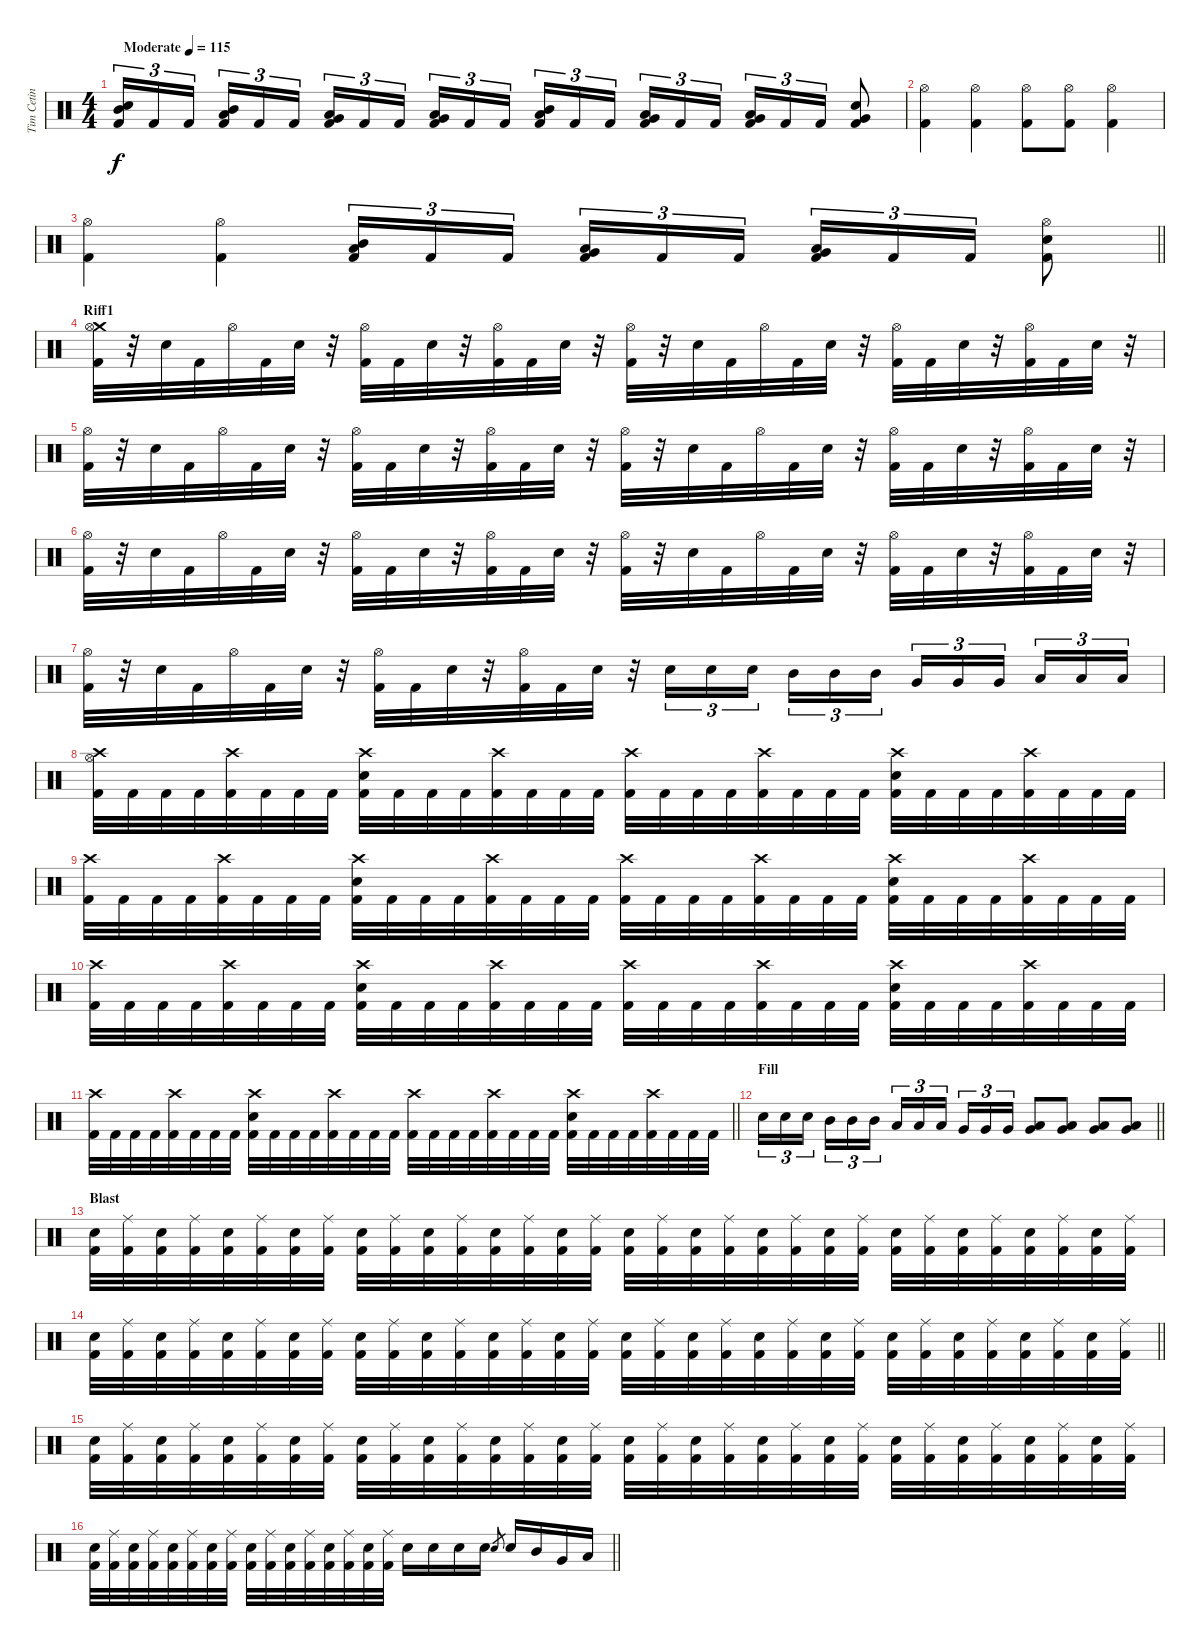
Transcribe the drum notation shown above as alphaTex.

\track ("Tim Cetin" "Tim Cetin") {instrument percussion}
\staff {score}
\articulation defaults
\ts (4 4)
\tempo (115 "Moderate")
\clef neutral
\ks c
("Mid Tom (hit)" "Snare (hit) 2" "Kick (hit) 2").16{tu (3 2) dy f} "Kick (hit) 2".16{tu (3 2)} "Kick (hit) 2".16{tu (3 2) beam splitsecondary} ("Low Tom (hit)" "Mid Tom (hit)" "Kick (hit) 2").16{tu (3 2)} "Kick (hit) 2".16{tu (3 2)} "Kick (hit) 2".16{tu (3 2)} ("Low Tom (hit)" "Very Low Tom (hit)" "Kick (hit) 2").16{tu (3 2)} "Kick (hit) 2".16{tu (3 2)} "Kick (hit) 2".16{tu (3 2) beam splitsecondary} ("Low Floor Tom (hit)" "Very Low Tom (hit)" "Kick (hit) 2").16{tu (3 2)} "Kick (hit) 2".16{tu (3 2)} "Kick (hit) 2".16{tu (3 2)} ("Mid Tom (hit)" "Low Tom (hit)" "Kick (hit) 2").16{tu (3 2)} "Kick (hit) 2".16{tu (3 2)} "Kick (hit) 2".16{tu (3 2) beam splitsecondary} ("Low Tom (hit)" "Very Low Tom (hit)" "Kick (hit) 2").16{tu (3 2)} "Kick (hit) 2".16{tu (3 2)} "Kick (hit) 2".16{tu (3 2)} ("Low Floor Tom (hit)" "Very Low Tom (hit)" "Kick (hit) 2").16{tu (3 2)} "Kick (hit) 2".16{tu (3 2)} "Kick (hit) 2".16{tu (3 2)} ("Snare (hit) 2" "Very Low Tom (hit)" "Kick (hit) 2").8 |
("Hi-Hat (open)" "Kick (hit) 2").4 ("Hi-Hat (open)" "Kick (hit) 2").4 ("Hi-Hat (open)" "Kick (hit) 2").8 ("Hi-Hat (open)" "Kick (hit) 2").8 ("Hi-Hat (open)" "Kick (hit) 2").4 |
\barLineRight lightlight
("Hi-Hat (open)" "Kick (hit) 2").4 ("Hi-Hat (open)" "Kick (hit) 2").4 ("Low Tom (hit)" "Mid Tom (hit)" "Kick (hit) 2").16{tu (3 2)} "Kick (hit) 2".16{tu (3 2)} "Kick (hit) 2".16{tu (3 2) beam splitsecondary} ("Low Tom (hit)" "Very Low Tom (hit)" "Kick (hit) 2").16{tu (3 2)} "Kick (hit) 2".16{tu (3 2)} "Kick (hit) 2".16{tu (3 2)} ("Low Floor Tom (hit)" "Very Low Tom (hit)" "Kick (hit) 2").16{tu (3 2)} "Kick (hit) 2".16{tu (3 2)} "Kick (hit) 2".16{tu (3 2)} ("Hi-Hat (open)" "Snare (hit) 2" "Kick (hit) 2").8 |
\section ("" "Riff1")
("Crash medium (hit)" "Hi-Hat (open)" "Kick (hit) 2").32 r.32 "Snare (hit) 2".32 "Kick (hit) 2".32 "Hi-Hat (open)".32 "Kick (hit) 2".32 "Snare (hit) 2".32 r.32 ("Hi-Hat (open)" "Kick (hit) 2").32 "Kick (hit) 2".32 "Snare (hit) 2".32 r.32 ("Hi-Hat (open)" "Kick (hit) 2").32 "Kick (hit) 2".32 "Snare (hit) 2".32 r.32 ("Hi-Hat (open)" "Kick (hit) 2").32 r.32 "Snare (hit) 2".32 "Kick (hit) 2".32 "Hi-Hat (open)".32 "Kick (hit) 2".32 "Snare (hit) 2".32 r.32 ("Hi-Hat (open)" "Kick (hit) 2").32 "Kick (hit) 2".32 "Snare (hit) 2".32 r.32 ("Hi-Hat (open)" "Kick (hit) 2").32 "Kick (hit) 2".32 "Snare (hit) 2".32 r.32 |
("Hi-Hat (open)" "Kick (hit) 2").32 r.32 "Snare (hit) 2".32 "Kick (hit) 2".32 "Hi-Hat (open)".32 "Kick (hit) 2".32 "Snare (hit) 2".32 r.32 ("Hi-Hat (open)" "Kick (hit) 2").32 "Kick (hit) 2".32 "Snare (hit) 2".32 r.32 ("Hi-Hat (open)" "Kick (hit) 2").32 "Kick (hit) 2".32 "Snare (hit) 2".32 r.32 ("Hi-Hat (open)" "Kick (hit) 2").32 r.32 "Snare (hit) 2".32 "Kick (hit) 2".32 "Hi-Hat (open)".32 "Kick (hit) 2".32 "Snare (hit) 2".32 r.32 ("Hi-Hat (open)" "Kick (hit) 2").32 "Kick (hit) 2".32 "Snare (hit) 2".32 r.32 ("Hi-Hat (open)" "Kick (hit) 2").32 "Kick (hit) 2".32 "Snare (hit) 2".32 r.32 |
("Hi-Hat (open)" "Kick (hit) 2").32 r.32 "Snare (hit) 2".32 "Kick (hit) 2".32 "Hi-Hat (open)".32 "Kick (hit) 2".32 "Snare (hit) 2".32 r.32 ("Hi-Hat (open)" "Kick (hit) 2").32 "Kick (hit) 2".32 "Snare (hit) 2".32 r.32 ("Hi-Hat (open)" "Kick (hit) 2").32 "Kick (hit) 2".32 "Snare (hit) 2".32 r.32 ("Hi-Hat (open)" "Kick (hit) 2").32 r.32 "Snare (hit) 2".32 "Kick (hit) 2".32 "Hi-Hat (open)".32 "Kick (hit) 2".32 "Snare (hit) 2".32 r.32 ("Hi-Hat (open)" "Kick (hit) 2").32 "Kick (hit) 2".32 "Snare (hit) 2".32 r.32 ("Hi-Hat (open)" "Kick (hit) 2").32 "Kick (hit) 2".32 "Snare (hit) 2".32 r.32 |
("Hi-Hat (open)" "Kick (hit) 2").32 r.32 "Snare (hit) 2".32 "Kick (hit) 2".32 "Hi-Hat (open)".32 "Kick (hit) 2".32 "Snare (hit) 2".32 r.32 ("Hi-Hat (open)" "Kick (hit) 2").32 "Kick (hit) 2".32 "Snare (hit) 2".32 r.32 ("Hi-Hat (open)" "Kick (hit) 2").32 "Kick (hit) 2".32 "Snare (hit) 2".32 r.32 "Snare (hit) 2".16{tu (3 2)} "Snare (hit) 2".16{tu (3 2)} "Snare (hit) 2".16{tu (3 2) beam splitsecondary} "Mid Tom (hit)".16{tu (3 2)} "Mid Tom (hit)".16{tu (3 2)} "Mid Tom (hit)".16{tu (3 2)} "Very Low Tom (hit)".16{tu (3 2)} "Very Low Tom (hit)".16{tu (3 2)} "Very Low Tom (hit)".16{tu (3 2) beam splitsecondary} "Low Floor Tom (hit)".16{tu (3 2)} "Low Floor Tom (hit)".16{tu (3 2)} "Low Floor Tom (hit)".16{tu (3 2)} |
("Hi-Hat (open)" "Crash high (hit)" "Kick (hit) 2").32 "Kick (hit) 2".32 "Kick (hit) 2".32 "Kick (hit) 2".32 ("Crash high (hit)" "Kick (hit) 2").32 "Kick (hit) 2".32 "Kick (hit) 2".32 "Kick (hit) 2".32 ("Crash high (hit)" "Snare (hit) 2" "Kick (hit) 2").32 "Kick (hit) 2".32 "Kick (hit) 2".32 "Kick (hit) 2".32 ("Crash high (hit)" "Kick (hit) 2").32 "Kick (hit) 2".32 "Kick (hit) 2".32 "Kick (hit) 2".32 ("Crash high (hit)" "Kick (hit) 2").32 "Kick (hit) 2".32 "Kick (hit) 2".32 "Kick (hit) 2".32 ("Crash high (hit)" "Kick (hit) 2").32 "Kick (hit) 2".32 "Kick (hit) 2".32 "Kick (hit) 2".32 ("Crash high (hit)" "Snare (hit) 2" "Kick (hit) 2").32 "Kick (hit) 2".32 "Kick (hit) 2".32 "Kick (hit) 2".32 ("Crash high (hit)" "Kick (hit) 2").32 "Kick (hit) 2".32 "Kick (hit) 2".32 "Kick (hit) 2".32 |
("Crash high (hit)" "Kick (hit) 2").32 "Kick (hit) 2".32 "Kick (hit) 2".32 "Kick (hit) 2".32 ("Crash high (hit)" "Kick (hit) 2").32 "Kick (hit) 2".32 "Kick (hit) 2".32 "Kick (hit) 2".32 ("Crash high (hit)" "Snare (hit) 2" "Kick (hit) 2").32 "Kick (hit) 2".32 "Kick (hit) 2".32 "Kick (hit) 2".32 ("Crash high (hit)" "Kick (hit) 2").32 "Kick (hit) 2".32 "Kick (hit) 2".32 "Kick (hit) 2".32 ("Crash high (hit)" "Kick (hit) 2").32 "Kick (hit) 2".32 "Kick (hit) 2".32 "Kick (hit) 2".32 ("Crash high (hit)" "Kick (hit) 2").32 "Kick (hit) 2".32 "Kick (hit) 2".32 "Kick (hit) 2".32 ("Crash high (hit)" "Snare (hit) 2" "Kick (hit) 2").32 "Kick (hit) 2".32 "Kick (hit) 2".32 "Kick (hit) 2".32 ("Crash high (hit)" "Kick (hit) 2").32 "Kick (hit) 2".32 "Kick (hit) 2".32 "Kick (hit) 2".32 |
("Crash high (hit)" "Kick (hit) 2").32 "Kick (hit) 2".32 "Kick (hit) 2".32 "Kick (hit) 2".32 ("Crash high (hit)" "Kick (hit) 2").32 "Kick (hit) 2".32 "Kick (hit) 2".32 "Kick (hit) 2".32 ("Crash high (hit)" "Snare (hit) 2" "Kick (hit) 2").32 "Kick (hit) 2".32 "Kick (hit) 2".32 "Kick (hit) 2".32 ("Crash high (hit)" "Kick (hit) 2").32 "Kick (hit) 2".32 "Kick (hit) 2".32 "Kick (hit) 2".32 ("Crash high (hit)" "Kick (hit) 2").32 "Kick (hit) 2".32 "Kick (hit) 2".32 "Kick (hit) 2".32 ("Crash high (hit)" "Kick (hit) 2").32 "Kick (hit) 2".32 "Kick (hit) 2".32 "Kick (hit) 2".32 ("Crash high (hit)" "Snare (hit) 2" "Kick (hit) 2").32 "Kick (hit) 2".32 "Kick (hit) 2".32 "Kick (hit) 2".32 ("Crash high (hit)" "Kick (hit) 2").32 "Kick (hit) 2".32 "Kick (hit) 2".32 "Kick (hit) 2".32 |
\barLineRight lightlight
("Crash high (hit)" "Kick (hit) 2").32 "Kick (hit) 2".32 "Kick (hit) 2".32 "Kick (hit) 2".32 ("Crash high (hit)" "Kick (hit) 2").32 "Kick (hit) 2".32 "Kick (hit) 2".32 "Kick (hit) 2".32 ("Crash high (hit)" "Snare (hit) 2" "Kick (hit) 2").32 "Kick (hit) 2".32 "Kick (hit) 2".32 "Kick (hit) 2".32 ("Crash high (hit)" "Kick (hit) 2").32 "Kick (hit) 2".32 "Kick (hit) 2".32 "Kick (hit) 2".32 ("Crash high (hit)" "Kick (hit) 2").32 "Kick (hit) 2".32 "Kick (hit) 2".32 "Kick (hit) 2".32 ("Crash high (hit)" "Kick (hit) 2").32 "Kick (hit) 2".32 "Kick (hit) 2".32 "Kick (hit) 2".32 ("Crash high (hit)" "Snare (hit) 2" "Kick (hit) 2").32 "Kick (hit) 2".32 "Kick (hit) 2".32 "Kick (hit) 2".32 ("Crash high (hit)" "Kick (hit) 2").32 "Kick (hit) 2".32 "Kick (hit) 2".32 "Kick (hit) 2".32 |
\section ("" "Fill")
\barLineRight lightlight "Snare (hit) 2".16{tu (3 2)} "Snare (hit) 2".16{tu (3 2)} "Snare (hit) 2".16{tu (3 2) beam splitsecondary} "Mid Tom (hit)".16{tu (3 2)} "Mid Tom (hit)".16{tu (3 2)} "Mid Tom (hit)".16{tu (3 2)} "Low Tom (hit)".16{tu (3 2)} "Low Tom (hit)".16{tu (3 2)} "Low Tom (hit)".16{tu (3 2) beam splitsecondary} "Very Low Tom (hit)".16{tu (3 2)} "Very Low Tom (hit)".16{tu (3 2)} "Very Low Tom (hit)".16{tu (3 2)}
("Low Tom (hit)" "Very Low Tom (hit)").8 ("Low Tom (hit)" "Very Low Tom (hit)").8 ("Low Floor Tom (hit)" "Very Low Tom (hit)").8 ("Low Floor Tom (hit)" "Very Low Tom (hit)").8 |
\section ("" "Blast")
("Snare (hit) 2" "Kick (hit) 2").32 ("Ride (middle)" "Kick (hit) 2").32 ("Snare (hit) 2" "Kick (hit) 2").32 ("Ride (middle)" "Kick (hit) 2").32 ("Snare (hit) 2" "Kick (hit) 2").32 ("Ride (middle)" "Kick (hit) 2").32 ("Snare (hit) 2" "Kick (hit) 2").32 ("Ride (middle)" "Kick (hit) 2").32 ("Snare (hit) 2" "Kick (hit) 2").32 ("Ride (middle)" "Kick (hit) 2").32 ("Snare (hit) 2" "Kick (hit) 2").32 ("Ride (middle)" "Kick (hit) 2").32 ("Snare (hit) 2" "Kick (hit) 2").32 ("Ride (middle)" "Kick (hit) 2").32 ("Snare (hit) 2" "Kick (hit) 2").32 ("Ride (middle)" "Kick (hit) 2").32 ("Snare (hit) 2" "Kick (hit) 2").32 ("Ride (middle)" "Kick (hit) 2").32 ("Snare (hit) 2" "Kick (hit) 2").32 ("Ride (middle)" "Kick (hit) 2").32 ("Snare (hit) 2" "Kick (hit) 2").32 ("Ride (middle)" "Kick (hit) 2").32 ("Snare (hit) 2" "Kick (hit) 2").32 ("Ride (middle)" "Kick (hit) 2").32 ("Snare (hit) 2" "Kick (hit) 2").32 ("Ride (middle)" "Kick (hit) 2").32 ("Snare (hit) 2" "Kick (hit) 2").32 ("Ride (middle)" "Kick (hit) 2").32 ("Snare (hit) 2" "Kick (hit) 2").32 ("Ride (middle)" "Kick (hit) 2").32 ("Snare (hit) 2" "Kick (hit) 2").32 ("Ride (middle)" "Kick (hit) 2").32 |
\barLineRight lightlight
("Snare (hit) 2" "Kick (hit) 2").32 ("Ride (middle)" "Kick (hit) 2").32 ("Snare (hit) 2" "Kick (hit) 2").32 ("Ride (middle)" "Kick (hit) 2").32 ("Snare (hit) 2" "Kick (hit) 2").32 ("Ride (middle)" "Kick (hit) 2").32 ("Snare (hit) 2" "Kick (hit) 2").32 ("Ride (middle)" "Kick (hit) 2").32 ("Snare (hit) 2" "Kick (hit) 2").32 ("Ride (middle)" "Kick (hit) 2").32 ("Snare (hit) 2" "Kick (hit) 2").32 ("Ride (middle)" "Kick (hit) 2").32 ("Snare (hit) 2" "Kick (hit) 2").32 ("Ride (middle)" "Kick (hit) 2").32 ("Snare (hit) 2" "Kick (hit) 2").32 ("Ride (middle)" "Kick (hit) 2").32 ("Snare (hit) 2" "Kick (hit) 2").32 ("Ride (middle)" "Kick (hit) 2").32 ("Snare (hit) 2" "Kick (hit) 2").32 ("Ride (middle)" "Kick (hit) 2").32 ("Snare (hit) 2" "Kick (hit) 2").32 ("Ride (middle)" "Kick (hit) 2").32 ("Snare (hit) 2" "Kick (hit) 2").32 ("Ride (middle)" "Kick (hit) 2").32 ("Snare (hit) 2" "Kick (hit) 2").32 ("Ride (middle)" "Kick (hit) 2").32 ("Snare (hit) 2" "Kick (hit) 2").32 ("Ride (middle)" "Kick (hit) 2").32 ("Snare (hit) 2" "Kick (hit) 2").32 ("Ride (middle)" "Kick (hit) 2").32 ("Snare (hit) 2" "Kick (hit) 2").32 ("Ride (middle)" "Kick (hit) 2").32 |
("Snare (hit) 2" "Kick (hit) 2").32 ("Ride (middle)" "Kick (hit) 2").32 ("Snare (hit) 2" "Kick (hit) 2").32 ("Ride (middle)" "Kick (hit) 2").32 ("Snare (hit) 2" "Kick (hit) 2").32 ("Ride (middle)" "Kick (hit) 2").32 ("Snare (hit) 2" "Kick (hit) 2").32 ("Ride (middle)" "Kick (hit) 2").32 ("Snare (hit) 2" "Kick (hit) 2").32 ("Ride (middle)" "Kick (hit) 2").32 ("Snare (hit) 2" "Kick (hit) 2").32 ("Ride (middle)" "Kick (hit) 2").32 ("Snare (hit) 2" "Kick (hit) 2").32 ("Ride (middle)" "Kick (hit) 2").32 ("Snare (hit) 2" "Kick (hit) 2").32 ("Ride (middle)" "Kick (hit) 2").32 ("Snare (hit) 2" "Kick (hit) 2").32 ("Ride (middle)" "Kick (hit) 2").32 ("Snare (hit) 2" "Kick (hit) 2").32 ("Ride (middle)" "Kick (hit) 2").32 ("Snare (hit) 2" "Kick (hit) 2").32 ("Ride (middle)" "Kick (hit) 2").32 ("Snare (hit) 2" "Kick (hit) 2").32 ("Ride (middle)" "Kick (hit) 2").32 ("Snare (hit) 2" "Kick (hit) 2").32 ("Ride (middle)" "Kick (hit) 2").32 ("Snare (hit) 2" "Kick (hit) 2").32 ("Ride (middle)" "Kick (hit) 2").32 ("Snare (hit) 2" "Kick (hit) 2").32 ("Ride (middle)" "Kick (hit) 2").32 ("Snare (hit) 2" "Kick (hit) 2").32 ("Ride (middle)" "Kick (hit) 2").32 |
\barLineRight lightlight
("Snare (hit) 2" "Kick (hit) 2").32 ("Ride (middle)" "Kick (hit) 2").32 ("Snare (hit) 2" "Kick (hit) 2").32 ("Ride (middle)" "Kick (hit) 2").32 ("Snare (hit) 2" "Kick (hit) 2").32 ("Ride (middle)" "Kick (hit) 2").32 ("Snare (hit) 2" "Kick (hit) 2").32 ("Ride (middle)" "Kick (hit) 2").32 ("Snare (hit) 2" "Kick (hit) 2").32 ("Ride (middle)" "Kick (hit) 2").32 ("Snare (hit) 2" "Kick (hit) 2").32 ("Ride (middle)" "Kick (hit) 2").32 ("Snare (hit) 2" "Kick (hit) 2").32 ("Ride (middle)" "Kick (hit) 2").32 ("Snare (hit) 2" "Kick (hit) 2").32 ("Ride (middle)" "Kick (hit) 2").32 "Snare (hit) 2".16 "Snare (hit) 2".16 "Snare (hit) 2".16 "Snare (hit) 2".16 "Snare (hit) 2".8{gr} "Snare (hit) 2".16 "Mid Tom (hit)".16 "Very Low Tom (hit)".16 "Low Floor Tom (hit)".16
